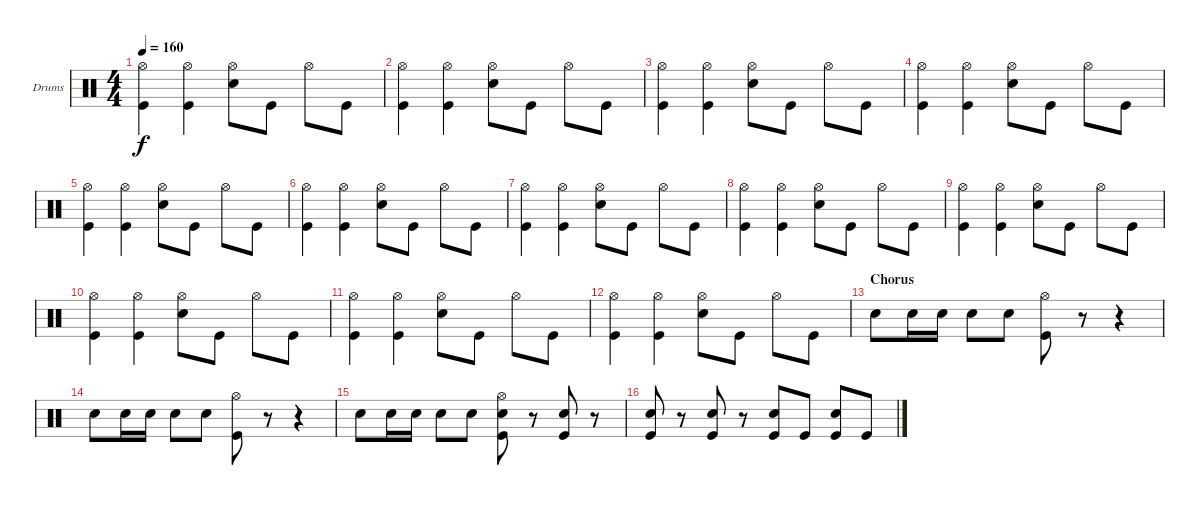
\bracketExtendMode groupsimilarinstruments
\firstSystemTrackNameOrientation horizontal
\otherSystemsTrackNameOrientation horizontal
\track ("Lars Ulrich (Drum)" "Drums") {instrument percussion}
\staff {score}
\articulation defaults
\ts (4 4)
\tempo 160
\clef neutral
\ks c
("Hi-Hat (open)" "Kick (hit)").4{dy f} ("Hi-Hat (open)" "Kick (hit)").4 ("Hi-Hat (open)" "Snare (hit) 2").8 "Kick (hit)".8 "Hi-Hat (open)".8 "Kick (hit)".8 |
("Hi-Hat (open)" "Kick (hit)").4 ("Hi-Hat (open)" "Kick (hit)").4 ("Hi-Hat (open)" "Snare (hit) 2").8 "Kick (hit)".8 "Hi-Hat (open)".8 "Kick (hit)".8 |
("Hi-Hat (open)" "Kick (hit)").4 ("Hi-Hat (open)" "Kick (hit)").4 ("Hi-Hat (open)" "Snare (hit) 2").8 "Kick (hit)".8 "Hi-Hat (open)".8 "Kick (hit)".8 |
("Hi-Hat (open)" "Kick (hit)").4 ("Hi-Hat (open)" "Kick (hit)").4 ("Hi-Hat (open)" "Snare (hit) 2").8 "Kick (hit)".8 "Hi-Hat (open)".8 "Kick (hit)".8 |
("Hi-Hat (open)" "Kick (hit)").4 ("Hi-Hat (open)" "Kick (hit)").4 ("Hi-Hat (open)" "Snare (hit) 2").8 "Kick (hit)".8 "Hi-Hat (open)".8 "Kick (hit)".8 |
("Hi-Hat (open)" "Kick (hit)").4 ("Hi-Hat (open)" "Kick (hit)").4 ("Hi-Hat (open)" "Snare (hit) 2").8 "Kick (hit)".8 "Hi-Hat (open)".8 "Kick (hit)".8 |
("Hi-Hat (open)" "Kick (hit)").4 ("Hi-Hat (open)" "Kick (hit)").4 ("Hi-Hat (open)" "Snare (hit) 2").8 "Kick (hit)".8 "Hi-Hat (open)".8 "Kick (hit)".8 |
("Hi-Hat (open)" "Kick (hit)").4 ("Hi-Hat (open)" "Kick (hit)").4 ("Hi-Hat (open)" "Snare (hit) 2").8 "Kick (hit)".8 "Hi-Hat (open)".8 "Kick (hit)".8 |
("Hi-Hat (open)" "Kick (hit)").4 ("Hi-Hat (open)" "Kick (hit)").4 ("Hi-Hat (open)" "Snare (hit) 2").8 "Kick (hit)".8 "Hi-Hat (open)".8 "Kick (hit)".8 |
("Hi-Hat (open)" "Kick (hit)").4 ("Hi-Hat (open)" "Kick (hit)").4 ("Hi-Hat (open)" "Snare (hit) 2").8 "Kick (hit)".8 "Hi-Hat (open)".8 "Kick (hit)".8 |
("Hi-Hat (open)" "Kick (hit)").4 ("Hi-Hat (open)" "Kick (hit)").4 ("Hi-Hat (open)" "Snare (hit) 2").8 "Kick (hit)".8 "Hi-Hat (open)".8 "Kick (hit)".8 |
("Hi-Hat (open)" "Kick (hit)").4 ("Hi-Hat (open)" "Kick (hit)").4 ("Hi-Hat (open)" "Snare (hit) 2").8 "Kick (hit)".8 "Hi-Hat (open)".8 "Kick (hit)".8 |
\section ("" "Chorus")
"Snare (hit) 2".8 "Snare (hit) 2".16 "Snare (hit) 2".16 "Snare (hit) 2".8 "Snare (hit) 2".8 ("Hi-Hat (open)" "Kick (hit)").8 r.8 r.4 |
"Snare (hit) 2".8 "Snare (hit) 2".16 "Snare (hit) 2".16 "Snare (hit) 2".8 "Snare (hit) 2".8 ("Hi-Hat (open)" "Kick (hit)").8 r.8 r.4 |
"Snare (hit) 2".8 "Snare (hit) 2".16 "Snare (hit) 2".16 "Snare (hit) 2".8 "Snare (hit) 2".8 ("Hi-Hat (open)" "Snare (hit) 2" "Kick (hit)").8 r.8 ("Snare (hit) 2" "Kick (hit)").8 r.8 |
("Snare (hit) 2" "Kick (hit)").8 r.8 ("Snare (hit) 2" "Kick (hit)").8 r.8 ("Snare (hit) 2" "Kick (hit)").8 "Kick (hit)".8 ("Snare (hit) 2" "Kick (hit)").8 "Kick (hit)".8
